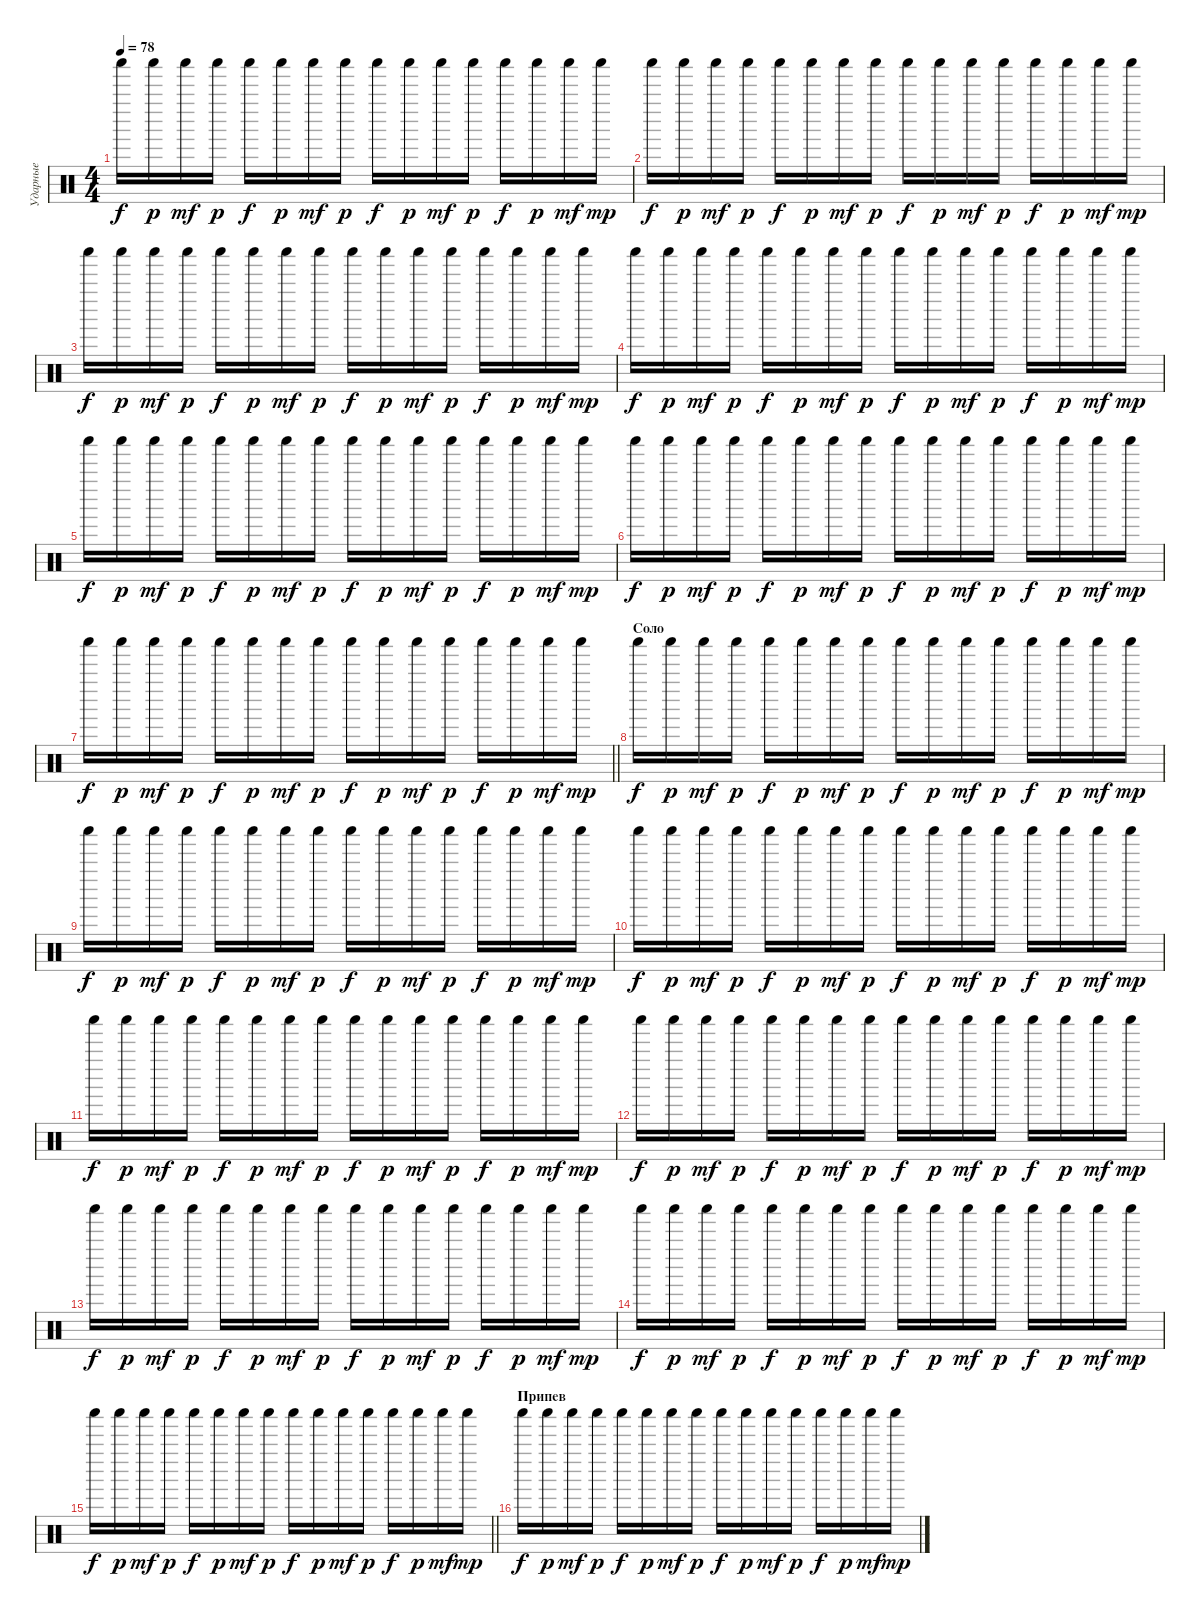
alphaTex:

\track ("Ударные" "Ударные") {instrument percussion}
\staff {score}
\articulation defaults
\ts (4 4)
\tempo 78
\clef neutral
\ks c "Shaker (hit)".16{dy f} "Shaker (hit)".16{dy p} "Shaker (hit)".16{dy mf} "Shaker (hit)".16{dy p} "Shaker (hit)".16{dy f} "Shaker (hit)".16{dy p} "Shaker (hit)".16{dy mf} "Shaker (hit)".16{dy p} "Shaker (hit)".16{dy f} "Shaker (hit)".16{dy p} "Shaker (hit)".16{dy mf} "Shaker (hit)".16{dy p} "Shaker (hit)".16{dy f} "Shaker (hit)".16{dy p} "Shaker (hit)".16{dy mf} "Shaker (hit)".16{dy mp}
|
"Shaker (hit)".16{dy f} "Shaker (hit)".16{dy p} "Shaker (hit)".16{dy mf} "Shaker (hit)".16{dy p} "Shaker (hit)".16{dy f} "Shaker (hit)".16{dy p} "Shaker (hit)".16{dy mf} "Shaker (hit)".16{dy p} "Shaker (hit)".16{dy f} "Shaker (hit)".16{dy p} "Shaker (hit)".16{dy mf} "Shaker (hit)".16{dy p} "Shaker (hit)".16{dy f} "Shaker (hit)".16{dy p} "Shaker (hit)".16{dy mf} "Shaker (hit)".16{dy mp} |
"Shaker (hit)".16{dy f} "Shaker (hit)".16{dy p} "Shaker (hit)".16{dy mf} "Shaker (hit)".16{dy p} "Shaker (hit)".16{dy f} "Shaker (hit)".16{dy p} "Shaker (hit)".16{dy mf} "Shaker (hit)".16{dy p} "Shaker (hit)".16{dy f} "Shaker (hit)".16{dy p} "Shaker (hit)".16{dy mf} "Shaker (hit)".16{dy p} "Shaker (hit)".16{dy f} "Shaker (hit)".16{dy p} "Shaker (hit)".16{dy mf} "Shaker (hit)".16{dy mp} |
"Shaker (hit)".16{dy f} "Shaker (hit)".16{dy p} "Shaker (hit)".16{dy mf} "Shaker (hit)".16{dy p} "Shaker (hit)".16{dy f} "Shaker (hit)".16{dy p} "Shaker (hit)".16{dy mf} "Shaker (hit)".16{dy p} "Shaker (hit)".16{dy f} "Shaker (hit)".16{dy p} "Shaker (hit)".16{dy mf} "Shaker (hit)".16{dy p} "Shaker (hit)".16{dy f} "Shaker (hit)".16{dy p} "Shaker (hit)".16{dy mf} "Shaker (hit)".16{dy mp} |
"Shaker (hit)".16{dy f} "Shaker (hit)".16{dy p} "Shaker (hit)".16{dy mf} "Shaker (hit)".16{dy p} "Shaker (hit)".16{dy f} "Shaker (hit)".16{dy p} "Shaker (hit)".16{dy mf} "Shaker (hit)".16{dy p} "Shaker (hit)".16{dy f} "Shaker (hit)".16{dy p} "Shaker (hit)".16{dy mf} "Shaker (hit)".16{dy p} "Shaker (hit)".16{dy f} "Shaker (hit)".16{dy p} "Shaker (hit)".16{dy mf} "Shaker (hit)".16{dy mp} |
"Shaker (hit)".16{dy f} "Shaker (hit)".16{dy p} "Shaker (hit)".16{dy mf} "Shaker (hit)".16{dy p} "Shaker (hit)".16{dy f} "Shaker (hit)".16{dy p} "Shaker (hit)".16{dy mf} "Shaker (hit)".16{dy p} "Shaker (hit)".16{dy f} "Shaker (hit)".16{dy p} "Shaker (hit)".16{dy mf} "Shaker (hit)".16{dy p} "Shaker (hit)".16{dy f} "Shaker (hit)".16{dy p} "Shaker (hit)".16{dy mf} "Shaker (hit)".16{dy mp} |
\barLineRight lightlight "Shaker (hit)".16{dy f} "Shaker (hit)".16{dy p} "Shaker (hit)".16{dy mf} "Shaker (hit)".16{dy p} "Shaker (hit)".16{dy f} "Shaker (hit)".16{dy p} "Shaker (hit)".16{dy mf} "Shaker (hit)".16{dy p} "Shaker (hit)".16{dy f} "Shaker (hit)".16{dy p} "Shaker (hit)".16{dy mf} "Shaker (hit)".16{dy p} "Shaker (hit)".16{dy f} "Shaker (hit)".16{dy p} "Shaker (hit)".16{dy mf} "Shaker (hit)".16{dy mp}
|
\section ("" "Соло")
"Shaker (hit)".16{dy f} "Shaker (hit)".16{dy p} "Shaker (hit)".16{dy mf} "Shaker (hit)".16{dy p} "Shaker (hit)".16{dy f} "Shaker (hit)".16{dy p} "Shaker (hit)".16{dy mf} "Shaker (hit)".16{dy p} "Shaker (hit)".16{dy f} "Shaker (hit)".16{dy p} "Shaker (hit)".16{dy mf} "Shaker (hit)".16{dy p} "Shaker (hit)".16{dy f} "Shaker (hit)".16{dy p} "Shaker (hit)".16{dy mf} "Shaker (hit)".16{dy mp} |
"Shaker (hit)".16{dy f} "Shaker (hit)".16{dy p} "Shaker (hit)".16{dy mf} "Shaker (hit)".16{dy p} "Shaker (hit)".16{dy f} "Shaker (hit)".16{dy p} "Shaker (hit)".16{dy mf} "Shaker (hit)".16{dy p} "Shaker (hit)".16{dy f} "Shaker (hit)".16{dy p} "Shaker (hit)".16{dy mf} "Shaker (hit)".16{dy p} "Shaker (hit)".16{dy f} "Shaker (hit)".16{dy p} "Shaker (hit)".16{dy mf} "Shaker (hit)".16{dy mp} |
"Shaker (hit)".16{dy f} "Shaker (hit)".16{dy p} "Shaker (hit)".16{dy mf} "Shaker (hit)".16{dy p} "Shaker (hit)".16{dy f} "Shaker (hit)".16{dy p} "Shaker (hit)".16{dy mf} "Shaker (hit)".16{dy p} "Shaker (hit)".16{dy f} "Shaker (hit)".16{dy p} "Shaker (hit)".16{dy mf} "Shaker (hit)".16{dy p} "Shaker (hit)".16{dy f} "Shaker (hit)".16{dy p} "Shaker (hit)".16{dy mf} "Shaker (hit)".16{dy mp} |
"Shaker (hit)".16{dy f} "Shaker (hit)".16{dy p} "Shaker (hit)".16{dy mf} "Shaker (hit)".16{dy p} "Shaker (hit)".16{dy f} "Shaker (hit)".16{dy p} "Shaker (hit)".16{dy mf} "Shaker (hit)".16{dy p} "Shaker (hit)".16{dy f} "Shaker (hit)".16{dy p} "Shaker (hit)".16{dy mf} "Shaker (hit)".16{dy p} "Shaker (hit)".16{dy f} "Shaker (hit)".16{dy p} "Shaker (hit)".16{dy mf} "Shaker (hit)".16{dy mp} |
"Shaker (hit)".16{dy f} "Shaker (hit)".16{dy p} "Shaker (hit)".16{dy mf} "Shaker (hit)".16{dy p} "Shaker (hit)".16{dy f} "Shaker (hit)".16{dy p} "Shaker (hit)".16{dy mf} "Shaker (hit)".16{dy p} "Shaker (hit)".16{dy f} "Shaker (hit)".16{dy p} "Shaker (hit)".16{dy mf} "Shaker (hit)".16{dy p} "Shaker (hit)".16{dy f} "Shaker (hit)".16{dy p} "Shaker (hit)".16{dy mf} "Shaker (hit)".16{dy mp} |
"Shaker (hit)".16{dy f} "Shaker (hit)".16{dy p} "Shaker (hit)".16{dy mf} "Shaker (hit)".16{dy p} "Shaker (hit)".16{dy f} "Shaker (hit)".16{dy p} "Shaker (hit)".16{dy mf} "Shaker (hit)".16{dy p} "Shaker (hit)".16{dy f} "Shaker (hit)".16{dy p} "Shaker (hit)".16{dy mf} "Shaker (hit)".16{dy p} "Shaker (hit)".16{dy f} "Shaker (hit)".16{dy p} "Shaker (hit)".16{dy mf} "Shaker (hit)".16{dy mp} |
"Shaker (hit)".16{dy f} "Shaker (hit)".16{dy p} "Shaker (hit)".16{dy mf} "Shaker (hit)".16{dy p} "Shaker (hit)".16{dy f} "Shaker (hit)".16{dy p} "Shaker (hit)".16{dy mf} "Shaker (hit)".16{dy p} "Shaker (hit)".16{dy f} "Shaker (hit)".16{dy p} "Shaker (hit)".16{dy mf} "Shaker (hit)".16{dy p} "Shaker (hit)".16{dy f} "Shaker (hit)".16{dy p} "Shaker (hit)".16{dy mf} "Shaker (hit)".16{dy mp} |
\barLineRight lightlight "Shaker (hit)".16{dy f} "Shaker (hit)".16{dy p} "Shaker (hit)".16{dy mf} "Shaker (hit)".16{dy p} "Shaker (hit)".16{dy f} "Shaker (hit)".16{dy p} "Shaker (hit)".16{dy mf} "Shaker (hit)".16{dy p} "Shaker (hit)".16{dy f} "Shaker (hit)".16{dy p} "Shaker (hit)".16{dy mf} "Shaker (hit)".16{dy p} "Shaker (hit)".16{dy f} "Shaker (hit)".16{dy p} "Shaker (hit)".16{dy mf} "Shaker (hit)".16{dy mp}
|
\section ("" "Припев")
"Shaker (hit)".16{dy f} "Shaker (hit)".16{dy p} "Shaker (hit)".16{dy mf} "Shaker (hit)".16{dy p} "Shaker (hit)".16{dy f} "Shaker (hit)".16{dy p} "Shaker (hit)".16{dy mf} "Shaker (hit)".16{dy p} "Shaker (hit)".16{dy f} "Shaker (hit)".16{dy p} "Shaker (hit)".16{dy mf} "Shaker (hit)".16{dy p} "Shaker (hit)".16{dy f} "Shaker (hit)".16{dy p} "Shaker (hit)".16{dy mf} "Shaker (hit)".16{dy mp}
